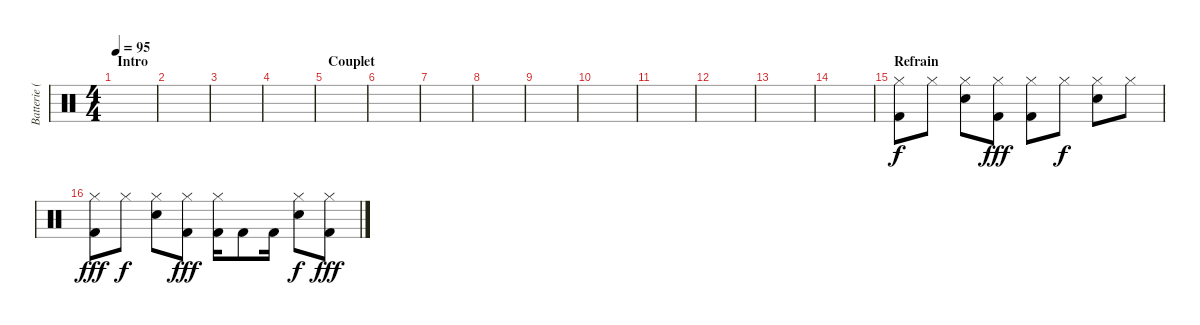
\track ("Batterie (Hervé)" "Batterie (") {instrument percussion}
\staff {score}
\articulation defaults
\ts (4 4)
\section ("" "Intro")
\tempo 95
\clef neutral
\ks c
|
|
|
|
\section ("" "Couplet")
|
|
|
|
|
|
|
|
|
|
\section ("" "Refrain")
("Kick (hit) 2" "Hi-Hat (closed)").8 "Hi-Hat (closed)".8{dy f} ("Snare (hit) 2" "Hi-Hat (closed)").8 ("Kick (hit) 2" "Hi-Hat (closed)").8{dy fff} ("Kick (hit) 2" "Hi-Hat (closed)").8 "Hi-Hat (closed)".8{dy f} ("Snare (hit) 2" "Hi-Hat (closed)").8 "Hi-Hat (closed)".8 |
("Kick (hit) 2" "Hi-Hat (closed)").8{dy fff} "Hi-Hat (closed)".8{dy f} ("Snare (hit) 2" "Hi-Hat (closed)").8 ("Kick (hit) 2" "Hi-Hat (closed)").8{dy fff} ("Kick (hit) 2" "Hi-Hat (closed)").16 "Kick (hit) 2".8 "Kick (hit) 2".16 ("Snare (hit) 2" "Hi-Hat (closed)").8{dy f} ("Kick (hit) 2" "Hi-Hat (closed)").8{dy fff}
